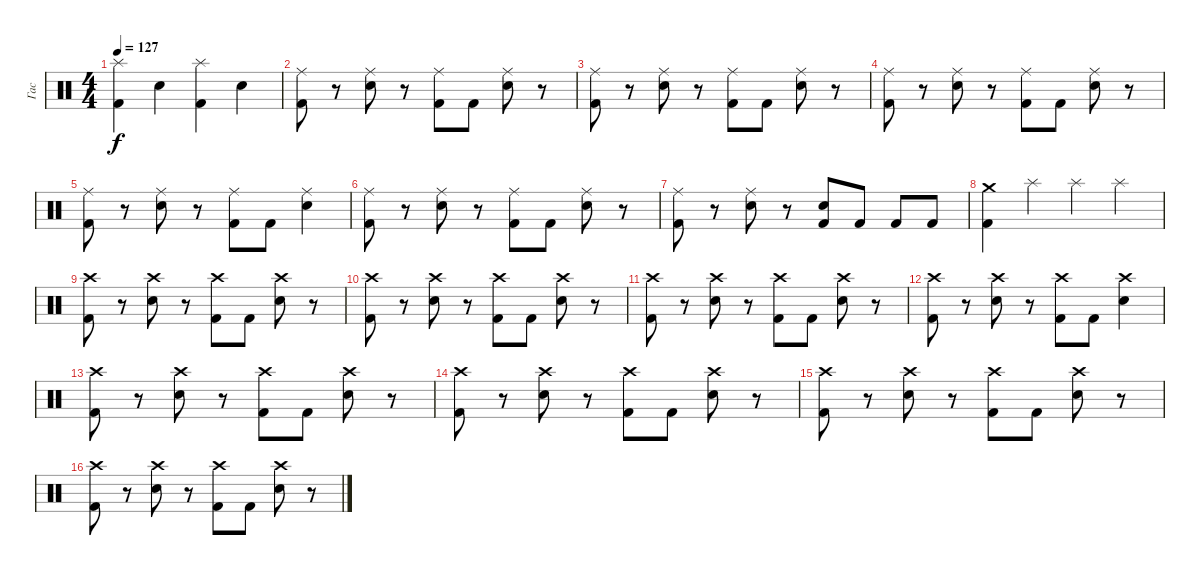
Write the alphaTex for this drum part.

\track ("Гас" "Гас") {instrument percussion}
\staff {score}
\articulation defaults
\ts (4 4)
\tempo 127
\clef neutral
\ks c
("Splash (hit)" "Kick (hit) 2").4{dy f} "Electric Snare (hit)".4 ("Splash (hit)" "Kick (hit) 2").4 "Electric Snare (hit)".4 |
("Ride (middle)" "Kick (hit) 2").8 r.8 ("Ride (middle)" "Electric Snare (hit)").8 r.8 ("Ride (middle)" "Kick (hit) 2").8 "Kick (hit) 2".8 ("Ride (middle)" "Electric Snare (hit)").8 r.8 |
("Ride (middle)" "Kick (hit) 2").8 r.8 ("Ride (middle)" "Electric Snare (hit)").8 r.8 ("Ride (middle)" "Kick (hit) 2").8 "Kick (hit) 2".8 ("Ride (middle)" "Electric Snare (hit)").8 r.8 |
("Ride (middle)" "Kick (hit) 2").8 r.8 ("Ride (middle)" "Electric Snare (hit)").8 r.8 ("Ride (middle)" "Kick (hit) 2").8 "Kick (hit) 2".8 ("Ride (middle)" "Electric Snare (hit)").8 r.8 |
("Ride (middle)" "Kick (hit) 2").8 r.8 ("Ride (middle)" "Electric Snare (hit)").8 r.8 ("Ride (middle)" "Kick (hit) 2").8 "Kick (hit) 2".8 ("Ride (middle)" "Electric Snare (hit)").4 |
("Ride (middle)" "Kick (hit) 2").8 r.8 ("Ride (middle)" "Electric Snare (hit)").8 r.8 ("Ride (middle)" "Kick (hit) 2").8 "Kick (hit) 2".8 ("Ride (middle)" "Electric Snare (hit)").8 r.8 |
("Ride (middle)" "Kick (hit) 2").8 r.8 ("Ride (middle)" "Electric Snare (hit)").8 r.8 ("Electric Snare (hit)" "Kick (hit) 2").8 "Kick (hit) 2".8 "Kick (hit) 2".8 "Kick (hit) 2".8 |
("Crash medium (hit)" "Kick (hit) 2").4 "Splash (hit)".4 "Splash (hit)".4 "Splash (hit)".4 |
("Crash high (hit)" "Kick (hit) 2").8 r.8 ("Crash high (hit)" "Electric Snare (hit)").8 r.8 ("Crash high (hit)" "Kick (hit) 2").8 "Kick (hit) 2".8 ("Crash high (hit)" "Electric Snare (hit)").8 r.8 |
("Crash high (hit)" "Kick (hit) 2").8 r.8 ("Crash high (hit)" "Electric Snare (hit)").8 r.8 ("Crash high (hit)" "Kick (hit) 2").8 "Kick (hit) 2".8 ("Crash high (hit)" "Electric Snare (hit)").8 r.8 |
("Crash high (hit)" "Kick (hit) 2").8 r.8 ("Crash high (hit)" "Electric Snare (hit)").8 r.8 ("Crash high (hit)" "Kick (hit) 2").8 "Kick (hit) 2".8 ("Crash high (hit)" "Electric Snare (hit)").8 r.8 |
("Crash high (hit)" "Kick (hit) 2").8 r.8 ("Crash high (hit)" "Electric Snare (hit)").8 r.8 ("Crash high (hit)" "Kick (hit) 2").8 "Kick (hit) 2".8 ("Crash high (hit)" "Electric Snare (hit)").4 |
("Crash high (hit)" "Kick (hit) 2").8 r.8 ("Crash high (hit)" "Electric Snare (hit)").8 r.8 ("Crash high (hit)" "Kick (hit) 2").8 "Kick (hit) 2".8 ("Crash high (hit)" "Electric Snare (hit)").8 r.8 |
("Crash high (hit)" "Kick (hit) 2").8 r.8 ("Crash high (hit)" "Electric Snare (hit)").8 r.8 ("Crash high (hit)" "Kick (hit) 2").8 "Kick (hit) 2".8 ("Crash high (hit)" "Electric Snare (hit)").8 r.8 |
("Crash high (hit)" "Kick (hit) 2").8 r.8 ("Crash high (hit)" "Electric Snare (hit)").8 r.8 ("Crash high (hit)" "Kick (hit) 2").8 "Kick (hit) 2".8 ("Crash high (hit)" "Electric Snare (hit)").8 r.8 |
("Crash high (hit)" "Kick (hit) 2").8 r.8 ("Crash high (hit)" "Electric Snare (hit)").8 r.8 ("Crash high (hit)" "Kick (hit) 2").8 "Kick (hit) 2".8 ("Crash high (hit)" "Electric Snare (hit)").8 r.8
